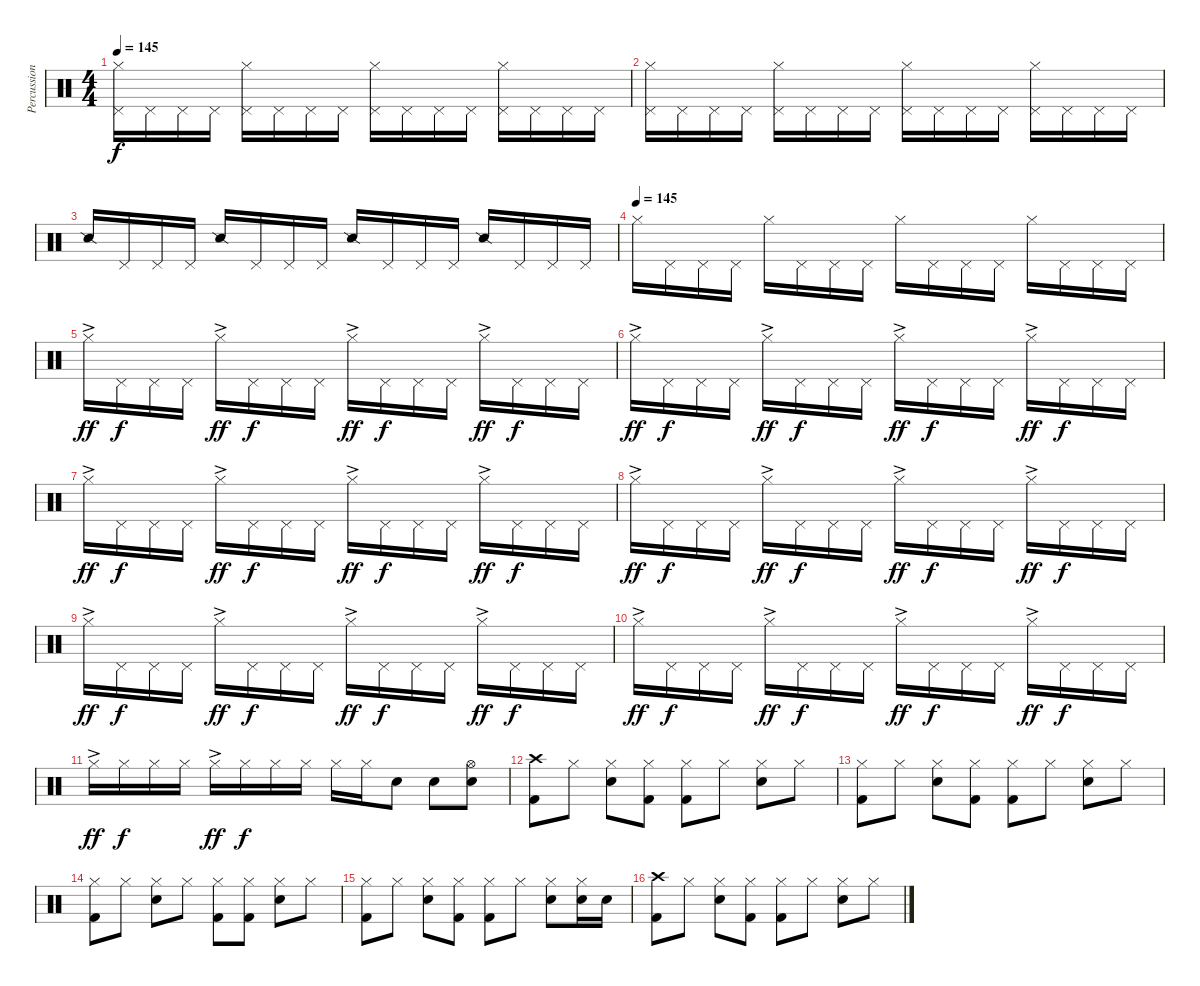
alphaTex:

\track ("Percussion" "Percussion") {instrument percussion}
\staff {score}
\articulation defaults
\ts (4 4)
\tempo 145
\clef neutral
\ks c
("Hi-Hat (closed)" "Pedal Hi-Hat (hit)").16{dy f} "Pedal Hi-Hat (hit)".16 "Pedal Hi-Hat (hit)".16 "Pedal Hi-Hat (hit)".16 ("Hi-Hat (closed)" "Pedal Hi-Hat (hit)").16 "Pedal Hi-Hat (hit)".16 "Pedal Hi-Hat (hit)".16 "Pedal Hi-Hat (hit)".16 ("Hi-Hat (closed)" "Pedal Hi-Hat (hit)").16 "Pedal Hi-Hat (hit)".16 "Pedal Hi-Hat (hit)".16 "Pedal Hi-Hat (hit)".16 ("Hi-Hat (closed)" "Pedal Hi-Hat (hit)").16 "Pedal Hi-Hat (hit)".16 "Pedal Hi-Hat (hit)".16 "Pedal Hi-Hat (hit)".16 |
("Hi-Hat (closed)" "Pedal Hi-Hat (hit)").16 "Pedal Hi-Hat (hit)".16 "Pedal Hi-Hat (hit)".16 "Pedal Hi-Hat (hit)".16 ("Hi-Hat (closed)" "Pedal Hi-Hat (hit)").16 "Pedal Hi-Hat (hit)".16 "Pedal Hi-Hat (hit)".16 "Pedal Hi-Hat (hit)".16 ("Hi-Hat (closed)" "Pedal Hi-Hat (hit)").16 "Pedal Hi-Hat (hit)".16 "Pedal Hi-Hat (hit)".16 "Pedal Hi-Hat (hit)".16 ("Hi-Hat (closed)" "Pedal Hi-Hat (hit)").16 "Pedal Hi-Hat (hit)".16 "Pedal Hi-Hat (hit)".16 "Pedal Hi-Hat (hit)".16 |
"Snare (side stick) 2".16 "Pedal Hi-Hat (hit)".16 "Pedal Hi-Hat (hit)".16 "Pedal Hi-Hat (hit)".16 "Snare (side stick) 2".16 "Pedal Hi-Hat (hit)".16 "Pedal Hi-Hat (hit)".16 "Pedal Hi-Hat (hit)".16 "Snare (side stick) 2".16 "Pedal Hi-Hat (hit)".16 "Pedal Hi-Hat (hit)".16 "Pedal Hi-Hat (hit)".16 "Snare (side stick) 2".16 "Pedal Hi-Hat (hit)".16 "Pedal Hi-Hat (hit)".16 "Pedal Hi-Hat (hit)".16 |
\tempo (145)
"Hi-Hat (closed)".16 "Pedal Hi-Hat (hit)".16 "Pedal Hi-Hat (hit)".16 "Pedal Hi-Hat (hit)".16 "Hi-Hat (closed)".16 "Pedal Hi-Hat (hit)".16 "Pedal Hi-Hat (hit)".16 "Pedal Hi-Hat (hit)".16 "Hi-Hat (closed)".16 "Pedal Hi-Hat (hit)".16 "Pedal Hi-Hat (hit)".16 "Pedal Hi-Hat (hit)".16 "Hi-Hat (closed)".16 "Pedal Hi-Hat (hit)".16 "Pedal Hi-Hat (hit)".16 "Pedal Hi-Hat (hit)".16 |
"Hi-Hat (closed)"{ac}.16{dy ff} "Pedal Hi-Hat (hit)".16{dy f} "Pedal Hi-Hat (hit)".16 "Pedal Hi-Hat (hit)".16 "Hi-Hat (closed)"{ac}.16{dy ff} "Pedal Hi-Hat (hit)".16{dy f} "Pedal Hi-Hat (hit)".16 "Pedal Hi-Hat (hit)".16 "Hi-Hat (closed)"{ac}.16{dy ff} "Pedal Hi-Hat (hit)".16{dy f} "Pedal Hi-Hat (hit)".16 "Pedal Hi-Hat (hit)".16 "Hi-Hat (closed)"{ac}.16{dy ff} "Pedal Hi-Hat (hit)".16{dy f} "Pedal Hi-Hat (hit)".16 "Pedal Hi-Hat (hit)".16 |
"Hi-Hat (closed)"{ac}.16{dy ff} "Pedal Hi-Hat (hit)".16{dy f} "Pedal Hi-Hat (hit)".16 "Pedal Hi-Hat (hit)".16 "Hi-Hat (closed)"{ac}.16{dy ff} "Pedal Hi-Hat (hit)".16{dy f} "Pedal Hi-Hat (hit)".16 "Pedal Hi-Hat (hit)".16 "Hi-Hat (closed)"{ac}.16{dy ff} "Pedal Hi-Hat (hit)".16{dy f} "Pedal Hi-Hat (hit)".16 "Pedal Hi-Hat (hit)".16 "Hi-Hat (closed)"{ac}.16{dy ff} "Pedal Hi-Hat (hit)".16{dy f} "Pedal Hi-Hat (hit)".16 "Pedal Hi-Hat (hit)".16 |
"Hi-Hat (closed)"{ac}.16{dy ff} "Pedal Hi-Hat (hit)".16{dy f} "Pedal Hi-Hat (hit)".16 "Pedal Hi-Hat (hit)".16 "Hi-Hat (closed)"{ac}.16{dy ff} "Pedal Hi-Hat (hit)".16{dy f} "Pedal Hi-Hat (hit)".16 "Pedal Hi-Hat (hit)".16 "Hi-Hat (closed)"{ac}.16{dy ff} "Pedal Hi-Hat (hit)".16{dy f} "Pedal Hi-Hat (hit)".16 "Pedal Hi-Hat (hit)".16 "Hi-Hat (closed)"{ac}.16{dy ff} "Pedal Hi-Hat (hit)".16{dy f} "Pedal Hi-Hat (hit)".16 "Pedal Hi-Hat (hit)".16 |
"Hi-Hat (closed)"{ac}.16{dy ff} "Pedal Hi-Hat (hit)".16{dy f} "Pedal Hi-Hat (hit)".16 "Pedal Hi-Hat (hit)".16 "Hi-Hat (closed)"{ac}.16{dy ff} "Pedal Hi-Hat (hit)".16{dy f} "Pedal Hi-Hat (hit)".16 "Pedal Hi-Hat (hit)".16 "Hi-Hat (closed)"{ac}.16{dy ff} "Pedal Hi-Hat (hit)".16{dy f} "Pedal Hi-Hat (hit)".16 "Pedal Hi-Hat (hit)".16 "Hi-Hat (closed)"{ac}.16{dy ff} "Pedal Hi-Hat (hit)".16{dy f} "Pedal Hi-Hat (hit)".16 "Pedal Hi-Hat (hit)".16 |
"Hi-Hat (closed)"{ac}.16{dy ff} "Pedal Hi-Hat (hit)".16{dy f} "Pedal Hi-Hat (hit)".16 "Pedal Hi-Hat (hit)".16 "Hi-Hat (closed)"{ac}.16{dy ff} "Pedal Hi-Hat (hit)".16{dy f} "Pedal Hi-Hat (hit)".16 "Pedal Hi-Hat (hit)".16 "Hi-Hat (closed)"{ac}.16{dy ff} "Pedal Hi-Hat (hit)".16{dy f} "Pedal Hi-Hat (hit)".16 "Pedal Hi-Hat (hit)".16 "Hi-Hat (closed)"{ac}.16{dy ff} "Pedal Hi-Hat (hit)".16{dy f} "Pedal Hi-Hat (hit)".16 "Pedal Hi-Hat (hit)".16 |
"Hi-Hat (closed)"{ac}.16{dy ff} "Pedal Hi-Hat (hit)".16{dy f} "Pedal Hi-Hat (hit)".16 "Pedal Hi-Hat (hit)".16 "Hi-Hat (closed)"{ac}.16{dy ff} "Pedal Hi-Hat (hit)".16{dy f} "Pedal Hi-Hat (hit)".16 "Pedal Hi-Hat (hit)".16 "Hi-Hat (closed)"{ac}.16{dy ff} "Pedal Hi-Hat (hit)".16{dy f} "Pedal Hi-Hat (hit)".16 "Pedal Hi-Hat (hit)".16 "Hi-Hat (closed)"{ac}.16{dy ff} "Pedal Hi-Hat (hit)".16{dy f} "Pedal Hi-Hat (hit)".16 "Pedal Hi-Hat (hit)".16 |
"Hi-Hat (closed)"{ac}.16{dy ff} "Hi-Hat (closed)".16{dy f} "Hi-Hat (closed)".16 "Hi-Hat (closed)".16 "Hi-Hat (closed)"{ac}.16{dy ff} "Hi-Hat (closed)".16{dy f} "Hi-Hat (closed)".16 "Hi-Hat (closed)".16 "Hi-Hat (closed)".16 "Hi-Hat (closed)".16 "Snare (hit) 2".8 "Snare (hit) 2".8 ("Hi-Hat (open)" "Snare (hit) 2").8 |
("Crash high (hit)" "Kick (hit) 2").8 "Hi-Hat (closed)".8 ("Hi-Hat (closed)" "Electric Snare (hit)").8 ("Hi-Hat (closed)" "Kick (hit) 2").8 ("Hi-Hat (closed)" "Kick (hit) 2").8 "Hi-Hat (closed)".8 ("Hi-Hat (closed)" "Electric Snare (hit)").8 "Hi-Hat (closed)".8 |
("Hi-Hat (closed)" "Kick (hit) 2").8 "Hi-Hat (closed)".8 ("Hi-Hat (closed)" "Electric Snare (hit)").8 ("Hi-Hat (closed)" "Kick (hit) 2").8 ("Hi-Hat (closed)" "Kick (hit) 2").8 "Hi-Hat (closed)".8 ("Hi-Hat (closed)" "Electric Snare (hit)").8 "Hi-Hat (closed)".8 |
("Hi-Hat (closed)" "Kick (hit) 2").8 "Hi-Hat (closed)".8 ("Hi-Hat (closed)" "Electric Snare (hit)").8 "Hi-Hat (closed)".8 ("Hi-Hat (closed)" "Kick (hit) 2").8 ("Hi-Hat (closed)" "Kick (hit) 2").8 ("Hi-Hat (closed)" "Electric Snare (hit)").8 "Hi-Hat (closed)".8 |
("Hi-Hat (closed)" "Kick (hit) 2").8 "Hi-Hat (closed)".8 ("Hi-Hat (closed)" "Electric Snare (hit)").8 ("Hi-Hat (closed)" "Kick (hit) 2").8 ("Hi-Hat (closed)" "Kick (hit) 2").8 "Hi-Hat (closed)".8 ("Hi-Hat (closed)" "Electric Snare (hit)").8 ("Hi-Hat (closed)" "Electric Snare (hit)").16 "Electric Snare (hit)".16 |
("Crash high (hit)" "Kick (hit) 2").8 "Hi-Hat (closed)".8 ("Hi-Hat (closed)" "Electric Snare (hit)").8 ("Hi-Hat (closed)" "Kick (hit) 2").8 ("Hi-Hat (closed)" "Kick (hit) 2").8 "Hi-Hat (closed)".8 ("Hi-Hat (closed)" "Electric Snare (hit)").8 "Hi-Hat (closed)".8
